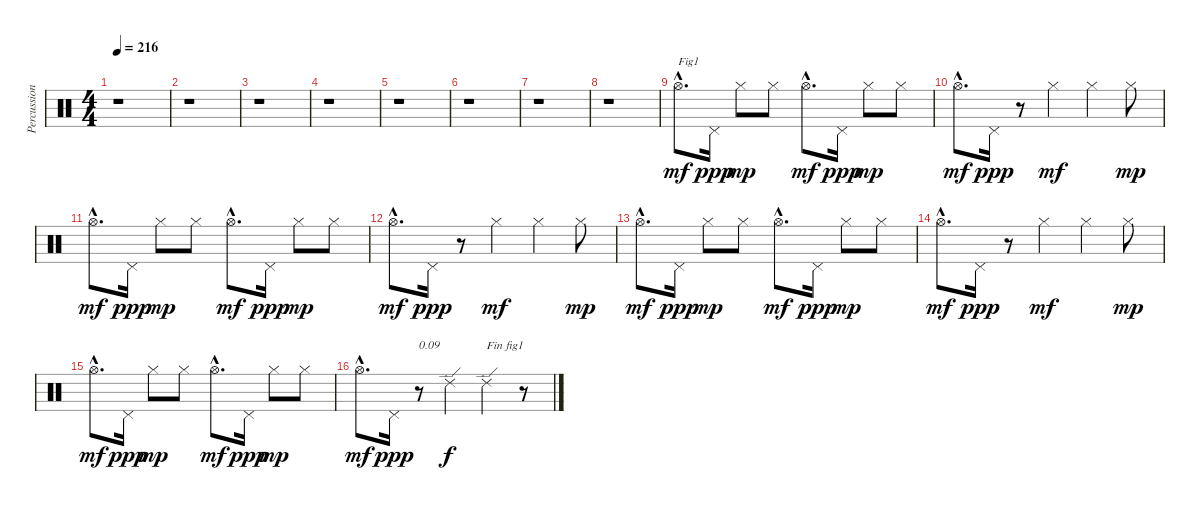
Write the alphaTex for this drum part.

\track ("Percussion" "Percussion") {instrument percussion}
\staff {score}
\articulation defaults
\ts (4 4)
\tempo 216
\clef neutral
\ks c
r.1{dy mf} |
r.1 |
r.1 |
r.1 |
r.1 |
r.1 |
r.1 |
r.1 |
"Hi-Hat (open)"{hac}.8{d txt "Fig1"} "Pedal Hi-Hat (hit)".16{dy ppp} "Hi-Hat (closed)".8{dy mp} "Hi-Hat (closed)".8 "Hi-Hat (open)"{hac}.8{d dy mf} "Pedal Hi-Hat (hit)".16{dy ppp} "Hi-Hat (closed)".8{dy mp} "Hi-Hat (closed)".8 |
"Hi-Hat (open)"{hac}.8{d dy mf} "Pedal Hi-Hat (hit)".16{dy ppp} r.8 "Hi-Hat (closed)".4{dy mf} "Hi-Hat (closed)".4 "Hi-Hat (closed)".8{dy mp} |
"Hi-Hat (open)"{hac}.8{d dy mf} "Pedal Hi-Hat (hit)".16{dy ppp} "Hi-Hat (closed)".8{dy mp} "Hi-Hat (closed)".8 "Hi-Hat (open)"{hac}.8{d dy mf} "Pedal Hi-Hat (hit)".16{dy ppp} "Hi-Hat (closed)".8{dy mp} "Hi-Hat (closed)".8 |
"Hi-Hat (open)"{hac}.8{d dy mf} "Pedal Hi-Hat (hit)".16{dy ppp} r.8 "Hi-Hat (closed)".4{dy mf} "Hi-Hat (closed)".4 "Hi-Hat (closed)".8{dy mp} |
"Hi-Hat (open)"{hac}.8{d dy mf} "Pedal Hi-Hat (hit)".16{dy ppp} "Hi-Hat (closed)".8{dy mp} "Hi-Hat (closed)".8 "Hi-Hat (open)"{hac}.8{d dy mf} "Pedal Hi-Hat (hit)".16{dy ppp} "Hi-Hat (closed)".8{dy mp} "Hi-Hat (closed)".8 |
"Hi-Hat (open)"{hac}.8{d dy mf} "Pedal Hi-Hat (hit)".16{dy ppp} r.8 "Hi-Hat (closed)".4{dy mf} "Hi-Hat (closed)".4 "Hi-Hat (closed)".8{dy mp} |
"Hi-Hat (open)"{hac}.8{d dy mf} "Pedal Hi-Hat (hit)".16{dy ppp} "Hi-Hat (closed)".8{dy mp} "Hi-Hat (closed)".8 "Hi-Hat (open)"{hac}.8{d dy mf} "Pedal Hi-Hat (hit)".16{dy ppp} "Hi-Hat (closed)".8{dy mp} "Hi-Hat (closed)".8 |
"Hi-Hat (open)"{hac}.8{d dy mf} "Pedal Hi-Hat (hit)".16{dy ppp} r.8{txt "0.09"} "Ride (edge) 2".4{dy f} "Ride (edge) 2".4{txt "Fin fig1"} r.8
